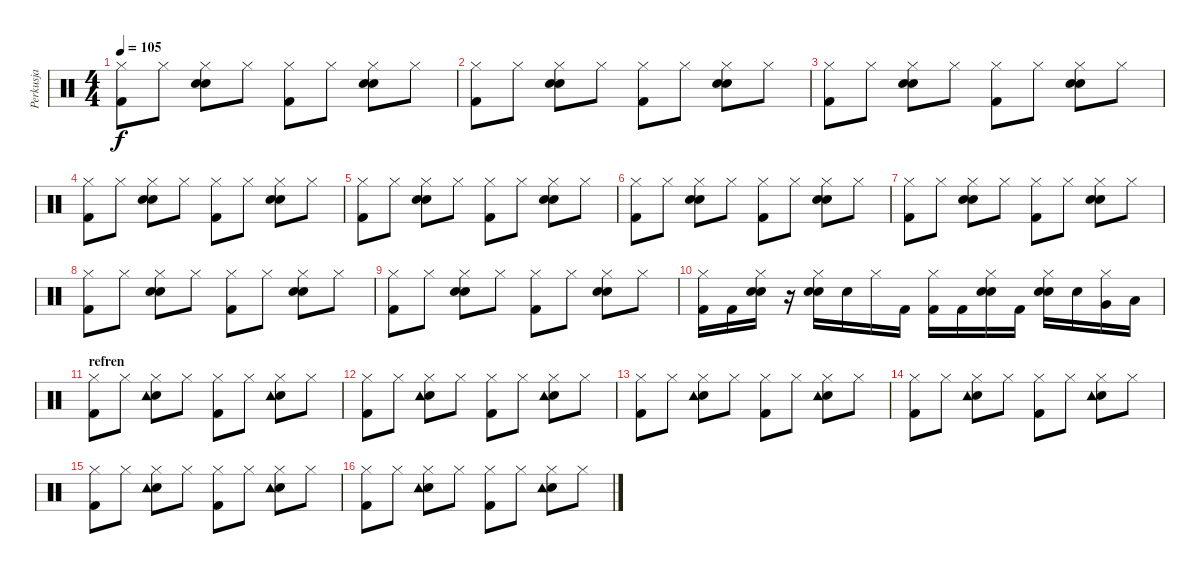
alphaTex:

\track ("Perkusja" "Perkusja") {instrument percussion}
\staff {score}
\articulation defaults
\ts (4 4)
\tempo 105
\clef neutral
\ks c
("Kick (hit) 2" "Hi-Hat (closed)").8{dy f} "Hi-Hat (closed)".8 ("Electric Snare (hit)" "Snare (hit) 2" "Hi-Hat (closed)").8 "Hi-Hat (closed)".8 ("Kick (hit) 2" "Hi-Hat (closed)").8 "Hi-Hat (closed)".8 ("Electric Snare (hit)" "Snare (hit) 2" "Hi-Hat (closed)").8 "Hi-Hat (closed)".8 |
("Kick (hit) 2" "Hi-Hat (closed)").8 "Hi-Hat (closed)".8 ("Electric Snare (hit)" "Snare (hit) 2" "Hi-Hat (closed)").8 "Hi-Hat (closed)".8 ("Kick (hit) 2" "Hi-Hat (closed)").8 "Hi-Hat (closed)".8 ("Electric Snare (hit)" "Snare (hit) 2" "Hi-Hat (closed)").8 "Hi-Hat (closed)".8 |
("Kick (hit) 2" "Hi-Hat (closed)").8 "Hi-Hat (closed)".8 ("Electric Snare (hit)" "Snare (hit) 2" "Hi-Hat (closed)").8 "Hi-Hat (closed)".8 ("Kick (hit) 2" "Hi-Hat (closed)").8 "Hi-Hat (closed)".8 ("Electric Snare (hit)" "Snare (hit) 2" "Hi-Hat (closed)").8 "Hi-Hat (closed)".8 |
("Kick (hit) 2" "Hi-Hat (closed)").8 "Hi-Hat (closed)".8 ("Electric Snare (hit)" "Snare (hit) 2" "Hi-Hat (closed)").8 "Hi-Hat (closed)".8 ("Kick (hit) 2" "Hi-Hat (closed)").8 "Hi-Hat (closed)".8 ("Electric Snare (hit)" "Snare (hit) 2" "Hi-Hat (closed)").8 "Hi-Hat (closed)".8 |
("Kick (hit) 2" "Hi-Hat (closed)").8 "Hi-Hat (closed)".8 ("Electric Snare (hit)" "Snare (hit) 2" "Hi-Hat (closed)").8 "Hi-Hat (closed)".8 ("Kick (hit) 2" "Hi-Hat (closed)").8 "Hi-Hat (closed)".8 ("Electric Snare (hit)" "Snare (hit) 2" "Hi-Hat (closed)").8 "Hi-Hat (closed)".8 |
("Kick (hit) 2" "Hi-Hat (closed)").8 "Hi-Hat (closed)".8 ("Electric Snare (hit)" "Snare (hit) 2" "Hi-Hat (closed)").8 "Hi-Hat (closed)".8 ("Kick (hit) 2" "Hi-Hat (closed)").8 "Hi-Hat (closed)".8 ("Electric Snare (hit)" "Snare (hit) 2" "Hi-Hat (closed)").8 "Hi-Hat (closed)".8 |
("Kick (hit) 2" "Hi-Hat (closed)").8 "Hi-Hat (closed)".8 ("Electric Snare (hit)" "Snare (hit) 2" "Hi-Hat (closed)").8 "Hi-Hat (closed)".8 ("Kick (hit) 2" "Hi-Hat (closed)").8 "Hi-Hat (closed)".8 ("Electric Snare (hit)" "Snare (hit) 2" "Hi-Hat (closed)").8 "Hi-Hat (closed)".8 |
("Kick (hit) 2" "Hi-Hat (closed)").8 "Hi-Hat (closed)".8 ("Electric Snare (hit)" "Snare (hit) 2" "Hi-Hat (closed)").8 "Hi-Hat (closed)".8 ("Kick (hit) 2" "Hi-Hat (closed)").8 "Hi-Hat (closed)".8 ("Electric Snare (hit)" "Snare (hit) 2" "Hi-Hat (closed)").8 "Hi-Hat (closed)".8 |
("Kick (hit) 2" "Hi-Hat (closed)").8 "Hi-Hat (closed)".8 ("Electric Snare (hit)" "Snare (hit) 2" "Hi-Hat (closed)").8 "Hi-Hat (closed)".8 ("Kick (hit) 2" "Hi-Hat (closed)").8 "Hi-Hat (closed)".8 ("Electric Snare (hit)" "Snare (hit) 2" "Hi-Hat (closed)").8 "Hi-Hat (closed)".8 |
("Kick (hit) 2" "Hi-Hat (closed)").16 "Kick (hit) 2".16 ("Electric Snare (hit)" "Snare (hit) 2" "Hi-Hat (closed)").16 r.16 ("Electric Snare (hit)" "Snare (hit) 2" "Hi-Hat (closed)").16 "Electric Snare (hit)".16 "Hi-Hat (closed)".16 "Kick (hit) 2".16 ("Kick (hit) 2" "Hi-Hat (closed)").16 "Kick (hit) 2".16 ("Electric Snare (hit)" "Snare (hit) 2" "Hi-Hat (closed)").16 "Kick (hit) 2".16 ("Electric Snare (hit)" "Snare (hit) 2" "Hi-Hat (closed)").16 "Electric Snare (hit)".16 ("Very Low Tom (hit)" "Hi-Hat (closed)").16 "Low Floor Tom (hit)".16 |
\section ("" "refren")
("Kick (hit) 2" "Hi-Hat (closed)").8 "Hi-Hat (closed)".8 ("Electric Snare (hit)" "Tambourine (hit)" "Hi-Hat (closed)").8 "Hi-Hat (closed)".8 ("Kick (hit) 2" "Hi-Hat (closed)").8 "Hi-Hat (closed)".8 ("Electric Snare (hit)" "Tambourine (hit)" "Hi-Hat (closed)").8 "Hi-Hat (closed)".8 |
("Kick (hit) 2" "Hi-Hat (closed)").8 "Hi-Hat (closed)".8 ("Electric Snare (hit)" "Tambourine (hit)" "Hi-Hat (closed)").8 "Hi-Hat (closed)".8 ("Kick (hit) 2" "Hi-Hat (closed)").8 "Hi-Hat (closed)".8 ("Electric Snare (hit)" "Tambourine (hit)" "Hi-Hat (closed)").8 "Hi-Hat (closed)".8 |
("Kick (hit) 2" "Hi-Hat (closed)").8 "Hi-Hat (closed)".8 ("Electric Snare (hit)" "Tambourine (hit)" "Hi-Hat (closed)").8 "Hi-Hat (closed)".8 ("Kick (hit) 2" "Hi-Hat (closed)").8 "Hi-Hat (closed)".8 ("Electric Snare (hit)" "Tambourine (hit)" "Hi-Hat (closed)").8 "Hi-Hat (closed)".8 |
("Kick (hit) 2" "Hi-Hat (closed)").8 "Hi-Hat (closed)".8 ("Electric Snare (hit)" "Tambourine (hit)" "Hi-Hat (closed)").8 "Hi-Hat (closed)".8 ("Kick (hit) 2" "Hi-Hat (closed)").8 "Hi-Hat (closed)".8 ("Electric Snare (hit)" "Tambourine (hit)" "Hi-Hat (closed)").8 "Hi-Hat (closed)".8 |
("Kick (hit) 2" "Hi-Hat (closed)").8 "Hi-Hat (closed)".8 ("Electric Snare (hit)" "Tambourine (hit)" "Hi-Hat (closed)").8 "Hi-Hat (closed)".8 ("Kick (hit) 2" "Hi-Hat (closed)").8 "Hi-Hat (closed)".8 ("Electric Snare (hit)" "Tambourine (hit)" "Hi-Hat (closed)").8 "Hi-Hat (closed)".8 |
("Kick (hit) 2" "Hi-Hat (closed)").8 "Hi-Hat (closed)".8 ("Electric Snare (hit)" "Tambourine (hit)" "Hi-Hat (closed)").8 "Hi-Hat (closed)".8 ("Kick (hit) 2" "Hi-Hat (closed)").8 "Hi-Hat (closed)".8 ("Electric Snare (hit)" "Tambourine (hit)" "Hi-Hat (closed)").8 "Hi-Hat (closed)".8
